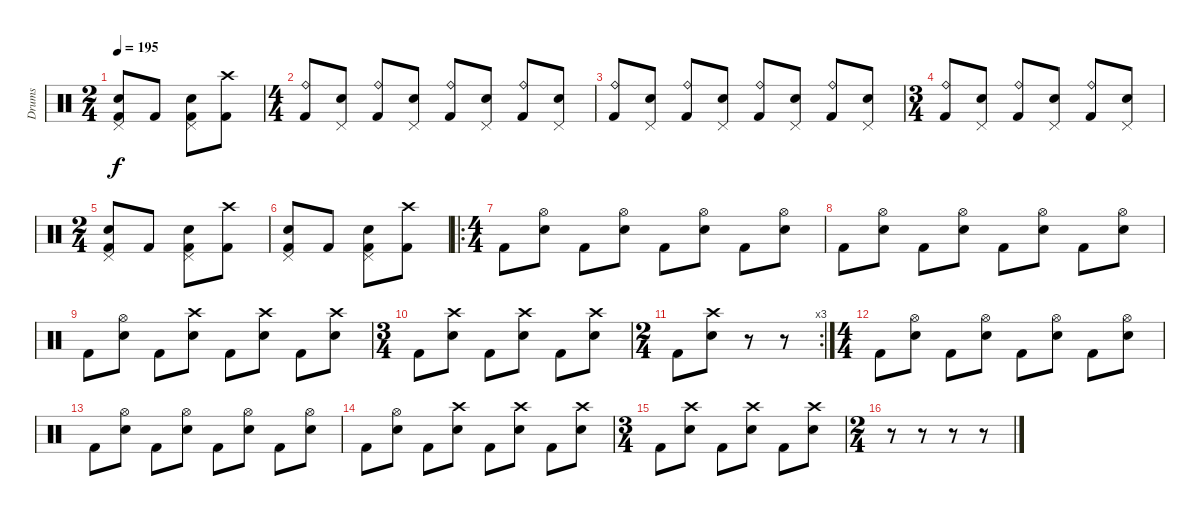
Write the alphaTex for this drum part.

\track ("Drums" "Drums") {instrument percussion}
\staff
\articulation defaults
\ts (2 4)
\tempo 195
\clef neutral
\ks c
("Pedal Hi-Hat (hit)" "Electric Snare (hit)" "Kick (hit) 2").8{dy f} "Kick (hit) 2".8 ("Pedal Hi-Hat (hit)" "Electric Snare (hit)" "Kick (hit) 2").8 ("Crash high (hit)" "Kick (hit) 2").8 |
\ts (4 4)
("Ride (bell)" "Kick (hit) 2").8 ("Electric Snare (hit)" "Pedal Hi-Hat (hit)").8 ("Ride (bell)" "Kick (hit) 2").8 ("Electric Snare (hit)" "Pedal Hi-Hat (hit)").8 ("Ride (bell)" "Kick (hit) 2").8 ("Electric Snare (hit)" "Pedal Hi-Hat (hit)").8 ("Ride (bell)" "Kick (hit) 2").8 ("Electric Snare (hit)" "Pedal Hi-Hat (hit)").8 |
("Ride (bell)" "Kick (hit) 2").8 ("Electric Snare (hit)" "Pedal Hi-Hat (hit)").8 ("Ride (bell)" "Kick (hit) 2").8 ("Electric Snare (hit)" "Pedal Hi-Hat (hit)").8 ("Ride (bell)" "Kick (hit) 2").8 ("Electric Snare (hit)" "Pedal Hi-Hat (hit)").8 ("Ride (bell)" "Kick (hit) 2").8 ("Electric Snare (hit)" "Pedal Hi-Hat (hit)").8 |
\ts (3 4)
("Ride (bell)" "Kick (hit) 2").8 ("Pedal Hi-Hat (hit)" "Electric Snare (hit)").8 ("Ride (bell)" "Kick (hit) 2").8 ("Pedal Hi-Hat (hit)" "Electric Snare (hit)").8 ("Ride (bell)" "Kick (hit) 2").8 ("Pedal Hi-Hat (hit)" "Electric Snare (hit)").8 |
\ts (2 4)
("Pedal Hi-Hat (hit)" "Electric Snare (hit)" "Kick (hit) 2").8 "Kick (hit) 2".8 ("Pedal Hi-Hat (hit)" "Electric Snare (hit)" "Kick (hit) 2").8 ("Crash high (hit)" "Kick (hit) 2").8 |
("Pedal Hi-Hat (hit)" "Electric Snare (hit)" "Kick (hit) 2").8 "Kick (hit) 2".8 ("Pedal Hi-Hat (hit)" "Electric Snare (hit)" "Kick (hit) 2").8 ("Crash high (hit)" "Kick (hit) 2").8 |
\ro
\ts (4 4)
"Kick (hit) 2".8 ("Electric Snare (hit)" "Hi-Hat (open)").8 "Kick (hit) 2".8 ("Electric Snare (hit)" "Hi-Hat (open)").8 "Kick (hit) 2".8 ("Electric Snare (hit)" "Hi-Hat (open)").8 "Kick (hit) 2".8 ("Electric Snare (hit)" "Hi-Hat (open)").8 |
"Kick (hit) 2".8 ("Electric Snare (hit)" "Hi-Hat (open)").8 "Kick (hit) 2".8 ("Electric Snare (hit)" "Hi-Hat (open)").8 "Kick (hit) 2".8 ("Electric Snare (hit)" "Hi-Hat (open)").8 "Kick (hit) 2".8 ("Electric Snare (hit)" "Hi-Hat (open)").8 |
"Kick (hit) 2".8 ("Hi-Hat (open)" "Electric Snare (hit)").8 "Kick (hit) 2".8 ("Crash high (hit)" "Electric Snare (hit)").8 "Kick (hit) 2".8 ("Crash high (hit)" "Electric Snare (hit)").8 "Kick (hit) 2".8 ("Crash high (hit)" "Electric Snare (hit)").8 |
\ts (3 4)
"Kick (hit) 2".8 ("Crash high (hit)" "Electric Snare (hit)").8 "Kick (hit) 2".8 ("Crash high (hit)" "Electric Snare (hit)").8 "Kick (hit) 2".8 ("Crash high (hit)" "Electric Snare (hit)").8 |
\rc 3
\ts (2 4)
"Kick (hit) 2".8 ("Crash high (hit)" "Electric Snare (hit)").8 r.8 r.8 |
\ts (4 4)
"Kick (hit) 2".8 ("Electric Snare (hit)" "Hi-Hat (open)").8 "Kick (hit) 2".8 ("Electric Snare (hit)" "Hi-Hat (open)").8 "Kick (hit) 2".8 ("Electric Snare (hit)" "Hi-Hat (open)").8 "Kick (hit) 2".8 ("Electric Snare (hit)" "Hi-Hat (open)").8 |
"Kick (hit) 2".8 ("Electric Snare (hit)" "Hi-Hat (open)").8 "Kick (hit) 2".8 ("Electric Snare (hit)" "Hi-Hat (open)").8 "Kick (hit) 2".8 ("Electric Snare (hit)" "Hi-Hat (open)").8 "Kick (hit) 2".8 ("Electric Snare (hit)" "Hi-Hat (open)").8 |
"Kick (hit) 2".8 ("Hi-Hat (open)" "Electric Snare (hit)").8 "Kick (hit) 2".8 ("Crash high (hit)" "Electric Snare (hit)").8 "Kick (hit) 2".8 ("Crash high (hit)" "Electric Snare (hit)").8 "Kick (hit) 2".8 ("Crash high (hit)" "Electric Snare (hit)").8 |
\ts (3 4)
"Kick (hit) 2".8 ("Crash high (hit)" "Electric Snare (hit)").8 "Kick (hit) 2".8 ("Crash high (hit)" "Electric Snare (hit)").8 "Kick (hit) 2".8 ("Crash high (hit)" "Electric Snare (hit)").8 |
\ts (2 4)
r.8 r.8 r.8 r.8
